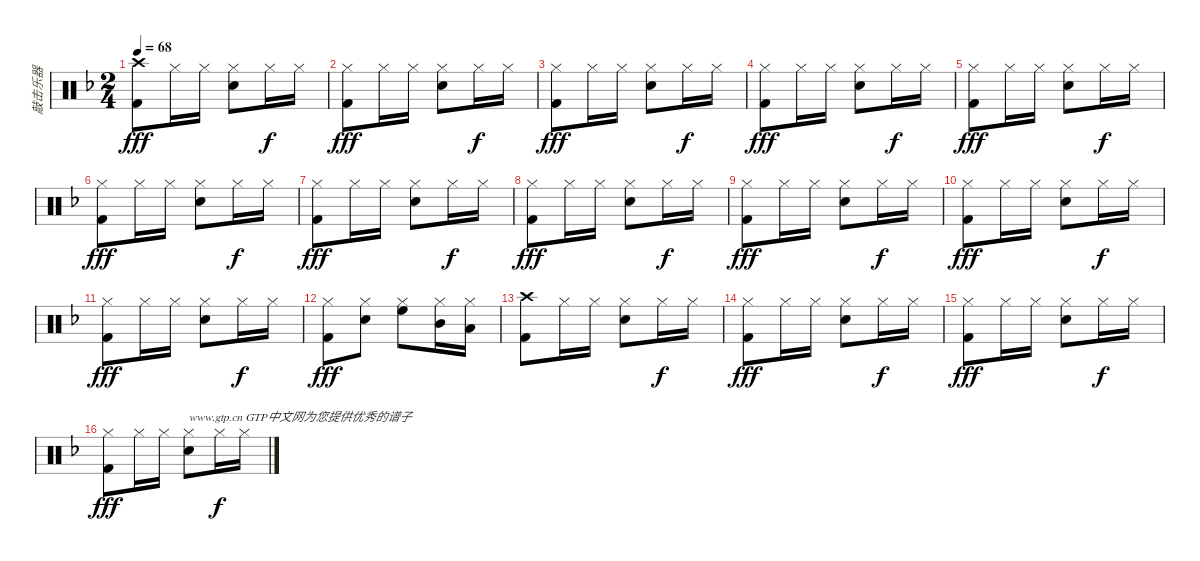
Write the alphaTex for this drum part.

\track ("敲击乐器" "敲击乐器") {instrument percussion}
\staff {score}
\articulation defaults
\ts (2 4)
\tempo 68
\clef neutral
\ks f
("Crash high (hit)" "Kick (hit) 2").8{dy fff} "Hi-Hat (closed)".16 "Hi-Hat (closed)".16 ("Hi-Hat (closed)" "Electric Snare (hit)").8 "Hi-Hat (closed)".16{dy f} "Hi-Hat (closed)".16 |
("Hi-Hat (closed)" "Kick (hit) 2").8{dy fff} "Hi-Hat (closed)".16 "Hi-Hat (closed)".16 ("Hi-Hat (closed)" "Electric Snare (hit)").8 "Hi-Hat (closed)".16{dy f} "Hi-Hat (closed)".16 |
("Hi-Hat (closed)" "Kick (hit) 2").8{dy fff} "Hi-Hat (closed)".16 "Hi-Hat (closed)".16 ("Hi-Hat (closed)" "Electric Snare (hit)").8 "Hi-Hat (closed)".16{dy f} "Hi-Hat (closed)".16 |
("Hi-Hat (closed)" "Kick (hit) 2").8{dy fff} "Hi-Hat (closed)".16 "Hi-Hat (closed)".16 ("Hi-Hat (closed)" "Electric Snare (hit)").8 "Hi-Hat (closed)".16{dy f} "Hi-Hat (closed)".16 |
("Hi-Hat (closed)" "Kick (hit) 2").8{dy fff} "Hi-Hat (closed)".16 "Hi-Hat (closed)".16 ("Hi-Hat (closed)" "Electric Snare (hit)").8 "Hi-Hat (closed)".16{dy f} "Hi-Hat (closed)".16 |
("Hi-Hat (closed)" "Kick (hit) 2").8{dy fff} "Hi-Hat (closed)".16 "Hi-Hat (closed)".16 ("Hi-Hat (closed)" "Electric Snare (hit)").8 "Hi-Hat (closed)".16{dy f} "Hi-Hat (closed)".16 |
("Hi-Hat (closed)" "Kick (hit) 2").8{dy fff} "Hi-Hat (closed)".16 "Hi-Hat (closed)".16 ("Hi-Hat (closed)" "Electric Snare (hit)").8 "Hi-Hat (closed)".16{dy f} "Hi-Hat (closed)".16 |
("Hi-Hat (closed)" "Kick (hit) 2").8{dy fff} "Hi-Hat (closed)".16 "Hi-Hat (closed)".16 ("Hi-Hat (closed)" "Electric Snare (hit)").8 "Hi-Hat (closed)".16{dy f} "Hi-Hat (closed)".16 |
("Hi-Hat (closed)" "Kick (hit) 2").8{dy fff} "Hi-Hat (closed)".16 "Hi-Hat (closed)".16 ("Hi-Hat (closed)" "Electric Snare (hit)").8 "Hi-Hat (closed)".16{dy f} "Hi-Hat (closed)".16 |
("Hi-Hat (closed)" "Kick (hit) 2").8{dy fff} "Hi-Hat (closed)".16 "Hi-Hat (closed)".16 ("Hi-Hat (closed)" "Electric Snare (hit)").8 "Hi-Hat (closed)".16{dy f} "Hi-Hat (closed)".16 |
("Hi-Hat (closed)" "Kick (hit) 2").8{dy fff} "Hi-Hat (closed)".16 "Hi-Hat (closed)".16 ("Hi-Hat (closed)" "Electric Snare (hit)").8 "Hi-Hat (closed)".16{dy f} "Hi-Hat (closed)".16 |
("Hi-Hat (closed)" "Kick (hit) 2").8{dy fff} ("Electric Snare (hit)" "Hi-Hat (closed)").8 ("High Floor Tom (hit)" "Hi-Hat (closed)").8 ("Mid Tom (hit)" "Hi-Hat (closed)").16 ("Low Tom (hit)" "Hi-Hat (closed)").16 |
("Crash high (hit)" "Kick (hit) 2").8 "Hi-Hat (closed)".16 "Hi-Hat (closed)".16 ("Hi-Hat (closed)" "Electric Snare (hit)").8 "Hi-Hat (closed)".16{dy f} "Hi-Hat (closed)".16 |
("Hi-Hat (closed)" "Kick (hit) 2").8{dy fff} "Hi-Hat (closed)".16 "Hi-Hat (closed)".16 ("Hi-Hat (closed)" "Electric Snare (hit)").8 "Hi-Hat (closed)".16{dy f} "Hi-Hat (closed)".16 |
("Hi-Hat (closed)" "Kick (hit) 2").8{dy fff} "Hi-Hat (closed)".16 "Hi-Hat (closed)".16 ("Hi-Hat (closed)" "Electric Snare (hit)").8 "Hi-Hat (closed)".16{dy f} "Hi-Hat (closed)".16 |
("Hi-Hat (closed)" "Kick (hit) 2").8{dy fff} "Hi-Hat (closed)".16 "Hi-Hat (closed)".16 ("Hi-Hat (closed)" "Electric Snare (hit)").8{txt "www.gtp.cn GTP中文网为您提供优秀的谱子"} "Hi-Hat (closed)".16{dy f} "Hi-Hat (closed)".16
